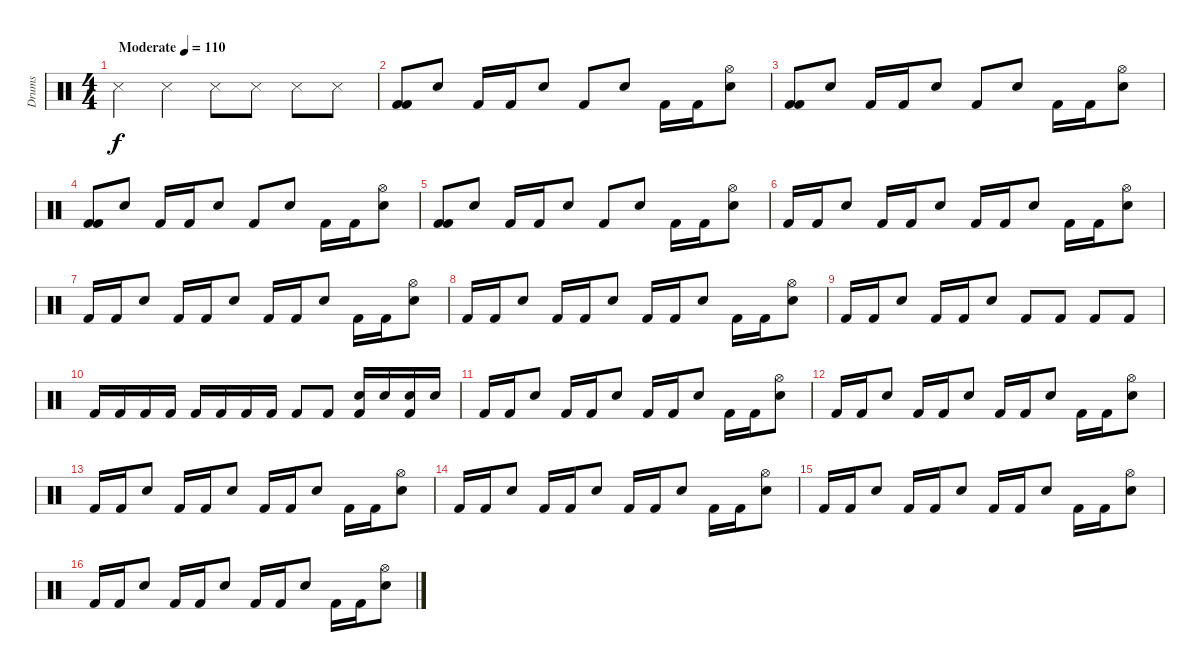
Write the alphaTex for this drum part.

\track ("Drums" "Drums") {instrument percussion}
\staff {score}
\articulation defaults
\ts (4 4)
\tempo (110 "Moderate")
\clef neutral
\ks c "Snare (side stick) 3".4{dy f} "Snare (side stick) 3".4 "Snare (side stick) 3".8 "Snare (side stick) 3".8 "Snare (side stick) 3".8 "Snare (side stick) 3".8
|
("Kick (hit) 2" "Kick (hit) 2").8 "Snare (hit) 2".8 "Kick (hit) 2".16 "Kick (hit) 2".16 "Snare (hit) 2".8 "Kick (hit) 2".8 "Snare (hit) 2".8 "Kick (hit) 2".16 "Kick (hit) 2".16 ("Snare (hit) 2" "Hi-Hat (open)").8 |
("Kick (hit) 2" "Kick (hit) 2").8 "Snare (hit) 2".8 "Kick (hit) 2".16 "Kick (hit) 2".16 "Snare (hit) 2".8 "Kick (hit) 2".8 "Snare (hit) 2".8 "Kick (hit) 2".16 "Kick (hit) 2".16 ("Snare (hit) 2" "Hi-Hat (open)").8 |
("Kick (hit) 2" "Kick (hit) 2").8 "Snare (hit) 2".8 "Kick (hit) 2".16 "Kick (hit) 2".16 "Snare (hit) 2".8 "Kick (hit) 2".8 "Snare (hit) 2".8 "Kick (hit) 2".16 "Kick (hit) 2".16 ("Snare (hit) 2" "Hi-Hat (open)").8 |
("Kick (hit) 2" "Kick (hit) 2").8 "Snare (hit) 2".8 "Kick (hit) 2".16 "Kick (hit) 2".16 "Snare (hit) 2".8 "Kick (hit) 2".8 "Snare (hit) 2".8 "Kick (hit) 2".16 "Kick (hit) 2".16 ("Snare (hit) 2" "Hi-Hat (open)").8 |
"Kick (hit) 2".16 "Kick (hit) 2".16 "Snare (hit) 2".8 "Kick (hit) 2".16 "Kick (hit) 2".16 "Snare (hit) 2".8 "Kick (hit) 2".16 "Kick (hit) 2".16 "Snare (hit) 2".8 "Kick (hit) 2".16 "Kick (hit) 2".16 ("Snare (hit) 2" "Hi-Hat (open)").8 |
"Kick (hit) 2".16 "Kick (hit) 2".16 "Snare (hit) 2".8 "Kick (hit) 2".16 "Kick (hit) 2".16 "Snare (hit) 2".8 "Kick (hit) 2".16 "Kick (hit) 2".16 "Snare (hit) 2".8 "Kick (hit) 2".16 "Kick (hit) 2".16 ("Snare (hit) 2" "Hi-Hat (open)").8 |
"Kick (hit) 2".16 "Kick (hit) 2".16 "Snare (hit) 2".8 "Kick (hit) 2".16 "Kick (hit) 2".16 "Snare (hit) 2".8 "Kick (hit) 2".16 "Kick (hit) 2".16 "Snare (hit) 2".8 "Kick (hit) 2".16 "Kick (hit) 2".16 ("Snare (hit) 2" "Hi-Hat (open)").8 |
"Kick (hit) 2".16 "Kick (hit) 2".16 "Snare (hit) 2".8 "Kick (hit) 2".16 "Kick (hit) 2".16 "Snare (hit) 2".8 "Kick (hit) 2".8 "Kick (hit) 2".8 "Kick (hit) 2".8 "Kick (hit) 2".8 |
"Kick (hit) 2".16 "Kick (hit) 2".16 "Kick (hit) 2".16 "Kick (hit) 2".16 "Kick (hit) 2".16 "Kick (hit) 2".16 "Kick (hit) 2".16 "Kick (hit) 2".16 "Kick (hit) 2".8 "Kick (hit) 2".8 ("Kick (hit) 2" "Snare (hit) 2").16 "Snare (hit) 2".16 ("Kick (hit) 2" "Snare (hit) 2").16 "Snare (hit) 2".16 |
"Kick (hit) 2".16 "Kick (hit) 2".16 "Snare (hit) 2".8 "Kick (hit) 2".16 "Kick (hit) 2".16 "Snare (hit) 2".8 "Kick (hit) 2".16 "Kick (hit) 2".16 "Snare (hit) 2".8 "Kick (hit) 2".16 "Kick (hit) 2".16 ("Snare (hit) 2" "Hi-Hat (open)").8 |
"Kick (hit) 2".16 "Kick (hit) 2".16 "Snare (hit) 2".8 "Kick (hit) 2".16 "Kick (hit) 2".16 "Snare (hit) 2".8 "Kick (hit) 2".16 "Kick (hit) 2".16 "Snare (hit) 2".8 "Kick (hit) 2".16 "Kick (hit) 2".16 ("Snare (hit) 2" "Hi-Hat (open)").8 |
"Kick (hit) 2".16 "Kick (hit) 2".16 "Snare (hit) 2".8 "Kick (hit) 2".16 "Kick (hit) 2".16 "Snare (hit) 2".8 "Kick (hit) 2".16 "Kick (hit) 2".16 "Snare (hit) 2".8 "Kick (hit) 2".16 "Kick (hit) 2".16 ("Snare (hit) 2" "Hi-Hat (open)").8 |
"Kick (hit) 2".16 "Kick (hit) 2".16 "Snare (hit) 2".8 "Kick (hit) 2".16 "Kick (hit) 2".16 "Snare (hit) 2".8 "Kick (hit) 2".16 "Kick (hit) 2".16 "Snare (hit) 2".8 "Kick (hit) 2".16 "Kick (hit) 2".16 ("Snare (hit) 2" "Hi-Hat (open)").8 |
"Kick (hit) 2".16 "Kick (hit) 2".16 "Snare (hit) 2".8 "Kick (hit) 2".16 "Kick (hit) 2".16 "Snare (hit) 2".8 "Kick (hit) 2".16 "Kick (hit) 2".16 "Snare (hit) 2".8 "Kick (hit) 2".16 "Kick (hit) 2".16 ("Snare (hit) 2" "Hi-Hat (open)").8 |
"Kick (hit) 2".16 "Kick (hit) 2".16 "Snare (hit) 2".8 "Kick (hit) 2".16 "Kick (hit) 2".16 "Snare (hit) 2".8 "Kick (hit) 2".16 "Kick (hit) 2".16 "Snare (hit) 2".8 "Kick (hit) 2".16 "Kick (hit) 2".16 ("Snare (hit) 2" "Hi-Hat (open)").8
